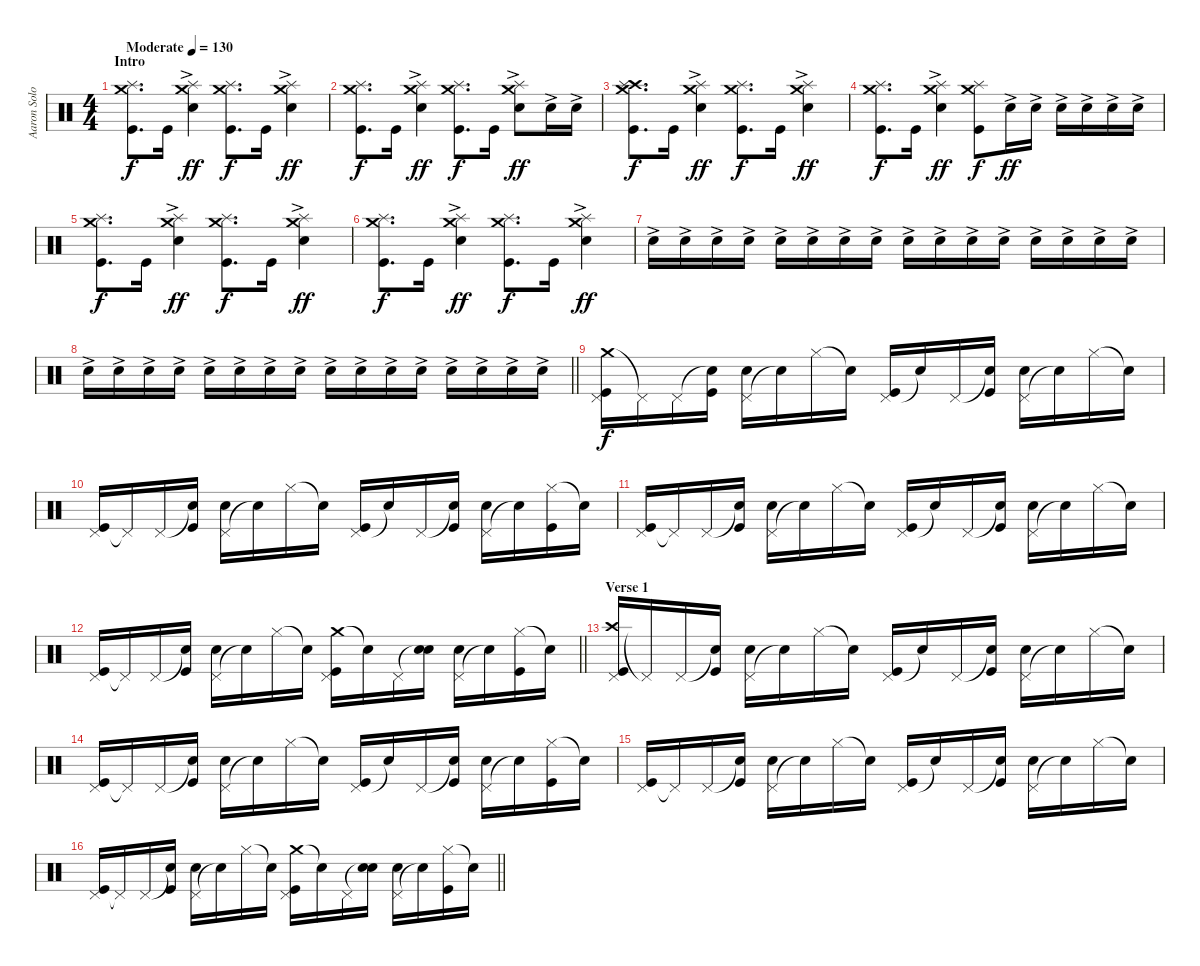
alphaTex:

\track ("Aaron Solowoniuk" "Aaron Solo") {instrument percussion}
\staff {score}
\articulation defaults
\ts (4 4)
\section ("" "Intro")
\tempo (130 "Moderate")
\clef neutral
\ks c
("Crash medium (hit)" "Splash (hit)" "Kick (hit)").8{d dy f} "Kick (hit)".16 ("Crash medium (hit)" "Splash (hit)" "Electric Snare (hit)"{ac}).4{dy ff} ("Crash medium (hit)" "Splash (hit)" "Kick (hit)").8{d dy f} "Kick (hit)".16 ("Crash medium (hit)" "Splash (hit)" "Electric Snare (hit)"{ac}).4{dy ff} |
("Crash medium (hit)" "Splash (hit)" "Kick (hit)").8{d dy f} "Kick (hit)".16 ("Crash medium (hit)" "Splash (hit)" "Electric Snare (hit)"{ac}).4{dy ff} ("Crash medium (hit)" "Splash (hit)" "Kick (hit)").8{d dy f} "Kick (hit)".16 ("Crash medium (hit)" "Splash (hit)" "Electric Snare (hit)"{ac}).8{dy ff} "Electric Snare (hit)"{ac}.16 "Electric Snare (hit)"{ac}.16 |
("Crash high (hit)" "Crash medium (hit)" "Splash (hit)" "Kick (hit)").8{d dy f} "Kick (hit)".16 ("Crash medium (hit)" "Splash (hit)" "Electric Snare (hit)"{ac}).4{dy ff} ("Crash medium (hit)" "Splash (hit)" "Kick (hit)").8{d dy f} "Kick (hit)".16 ("Crash medium (hit)" "Splash (hit)" "Electric Snare (hit)"{ac}).4{dy ff} |
("Crash medium (hit)" "Splash (hit)" "Kick (hit)").8{d dy f} "Kick (hit)".16 ("Crash medium (hit)" "Splash (hit)" "Electric Snare (hit)"{ac}).4{dy ff} ("Crash medium (hit)" "Splash (hit)" "Kick (hit)").8{dy f} "Electric Snare (hit)"{ac}.16{dy ff} "Electric Snare (hit)"{ac}.16 "Electric Snare (hit)"{ac}.16 "Electric Snare (hit)"{ac}.16 "Electric Snare (hit)"{ac}.16 "Electric Snare (hit)"{ac}.16 |
("Crash medium (hit)" "Splash (hit)" "Kick (hit)").8{d dy f} "Kick (hit)".16 ("Crash medium (hit)" "Splash (hit)" "Electric Snare (hit)"{ac}).4{dy ff} ("Crash medium (hit)" "Splash (hit)" "Kick (hit)").8{d dy f} "Kick (hit)".16 ("Crash medium (hit)" "Splash (hit)" "Electric Snare (hit)"{ac}).4{dy ff} |
("Crash medium (hit)" "Splash (hit)" "Kick (hit)").8{d dy f} "Kick (hit)".16 ("Crash medium (hit)" "Splash (hit)" "Electric Snare (hit)"{ac}).4{dy ff} ("Crash medium (hit)" "Splash (hit)" "Kick (hit)").8{d dy f} "Kick (hit)".16 ("Crash medium (hit)" "Splash (hit)" "Electric Snare (hit)"{ac}).4{dy ff} |
"Electric Snare (hit)"{ac}.16 "Electric Snare (hit)"{ac}.16 "Electric Snare (hit)"{ac}.16 "Electric Snare (hit)"{ac}.16 "Electric Snare (hit)"{ac}.16 "Electric Snare (hit)"{ac}.16 "Electric Snare (hit)"{ac}.16 "Electric Snare (hit)"{ac}.16 "Electric Snare (hit)"{ac}.16 "Electric Snare (hit)"{ac}.16 "Electric Snare (hit)"{ac}.16 "Electric Snare (hit)"{ac}.16 "Electric Snare (hit)"{ac}.16 "Electric Snare (hit)"{ac}.16 "Electric Snare (hit)"{ac}.16 "Electric Snare (hit)"{ac}.16 |
\barLineRight lightlight "Electric Snare (hit)"{ac}.16 "Electric Snare (hit)"{ac}.16 "Electric Snare (hit)"{ac}.16 "Electric Snare (hit)"{ac}.16 "Electric Snare (hit)"{ac}.16 "Electric Snare (hit)"{ac}.16 "Electric Snare (hit)"{ac}.16 "Electric Snare (hit)"{ac}.16 "Electric Snare (hit)"{ac}.16 "Electric Snare (hit)"{ac}.16 "Electric Snare (hit)"{ac}.16 "Electric Snare (hit)"{ac}.16 "Electric Snare (hit)"{ac}.16 "Electric Snare (hit)"{ac}.16 "Electric Snare (hit)"{ac}.16 "Electric Snare (hit)"{ac}.16
|
\section ("" "")
("Crash medium (hit)" "Pedal Hi-Hat (hit)" "Kick (hit)").16{dy f} "Pedal Hi-Hat (hit)"{t}.16 "Pedal Hi-Hat (hit)".16 ("Snare (hit)"{t} "Kick (hit)").16 ("Pedal Hi-Hat (hit)" "Electric Snare (hit)").16 "Snare (hit)"{t}.16 "Hi-Hat (closed)".16 "Snare (hit)"{t}.16 ("Pedal Hi-Hat (hit)" "Kick (hit)").16 "Snare (hit)"{t}.16 "Pedal Hi-Hat (hit)".16 ("Snare (hit)"{t} "Kick (hit)").16 ("Pedal Hi-Hat (hit)" "Electric Snare (hit)").16 "Snare (hit)"{t}.16 "Hi-Hat (closed)".16 "Snare (hit)"{t}.16 |
("Pedal Hi-Hat (hit)" "Kick (hit)").16 "Pedal Hi-Hat (hit)"{t}.16 "Pedal Hi-Hat (hit)".16 ("Snare (hit)"{t} "Kick (hit)").16 ("Pedal Hi-Hat (hit)" "Electric Snare (hit)").16 "Snare (hit)"{t}.16 "Hi-Hat (closed)".16 "Snare (hit)"{t}.16 ("Pedal Hi-Hat (hit)" "Kick (hit)").16 "Snare (hit)"{t}.16 "Pedal Hi-Hat (hit)".16 ("Snare (hit)"{t} "Kick (hit)").16 ("Pedal Hi-Hat (hit)" "Electric Snare (hit)").16 "Snare (hit)"{t}.16 ("Hi-Hat (closed)" "Kick (hit)").16 "Snare (hit)"{t}.16 |
("Pedal Hi-Hat (hit)" "Kick (hit)").16 "Pedal Hi-Hat (hit)"{t}.16 "Pedal Hi-Hat (hit)".16 ("Snare (hit)"{t} "Kick (hit)").16 ("Pedal Hi-Hat (hit)" "Electric Snare (hit)").16 "Snare (hit)"{t}.16 "Hi-Hat (closed)".16 "Snare (hit)"{t}.16 ("Pedal Hi-Hat (hit)" "Kick (hit)").16 "Snare (hit)"{t}.16 "Pedal Hi-Hat (hit)".16 ("Snare (hit)"{t} "Kick (hit)").16 ("Pedal Hi-Hat (hit)" "Electric Snare (hit)").16 "Snare (hit)"{t}.16 "Hi-Hat (closed)".16 "Snare (hit)"{t}.16 |
\barLineRight lightlight
("Pedal Hi-Hat (hit)" "Kick (hit)").16 "Pedal Hi-Hat (hit)"{t}.16 "Pedal Hi-Hat (hit)".16 ("Snare (hit)"{t} "Kick (hit)").16 ("Pedal Hi-Hat (hit)" "Electric Snare (hit)").16 "Snare (hit)"{t}.16 "Hi-Hat (closed)".16 "Snare (hit)"{t}.16 ("Crash medium (hit)" "Pedal Hi-Hat (hit)" "Kick (hit)").16 "Snare (hit)"{t}.16 "Pedal Hi-Hat (hit)".16 ("Snare (hit)"{t} "Electric Snare (hit)").16 ("Pedal Hi-Hat (hit)" "Electric Snare (hit)").16 "Snare (hit)"{t}.16 ("Hi-Hat (closed)" "Kick (hit)").16 "Snare (hit)"{t}.16 |
\section ("" "Verse 1")
("Crash high (hit)" "Pedal Hi-Hat (hit)" "Kick (hit)").16 "Pedal Hi-Hat (hit)"{t}.16 "Pedal Hi-Hat (hit)".16 ("Snare (hit)"{t} "Kick (hit)").16 ("Pedal Hi-Hat (hit)" "Electric Snare (hit)").16 "Snare (hit)"{t}.16 "Hi-Hat (closed)".16 "Snare (hit)"{t}.16 ("Pedal Hi-Hat (hit)" "Kick (hit)").16 "Snare (hit)"{t}.16 "Pedal Hi-Hat (hit)".16 ("Snare (hit)"{t} "Kick (hit)").16 ("Pedal Hi-Hat (hit)" "Electric Snare (hit)").16 "Snare (hit)"{t}.16 "Hi-Hat (closed)".16 "Snare (hit)"{t}.16 |
("Pedal Hi-Hat (hit)" "Kick (hit)").16 "Pedal Hi-Hat (hit)"{t}.16 "Pedal Hi-Hat (hit)".16 ("Snare (hit)"{t} "Kick (hit)").16 ("Pedal Hi-Hat (hit)" "Electric Snare (hit)").16 "Snare (hit)"{t}.16 "Hi-Hat (closed)".16 "Snare (hit)"{t}.16 ("Pedal Hi-Hat (hit)" "Kick (hit)").16 "Snare (hit)"{t}.16 "Pedal Hi-Hat (hit)".16 ("Snare (hit)"{t} "Kick (hit)").16 ("Pedal Hi-Hat (hit)" "Electric Snare (hit)").16 "Snare (hit)"{t}.16 ("Hi-Hat (closed)" "Kick (hit)").16 "Snare (hit)"{t}.16 |
("Pedal Hi-Hat (hit)" "Kick (hit)").16 "Pedal Hi-Hat (hit)"{t}.16 "Pedal Hi-Hat (hit)".16 ("Snare (hit)"{t} "Kick (hit)").16 ("Pedal Hi-Hat (hit)" "Electric Snare (hit)").16 "Snare (hit)"{t}.16 "Hi-Hat (closed)".16 "Snare (hit)"{t}.16 ("Pedal Hi-Hat (hit)" "Kick (hit)").16 "Snare (hit)"{t}.16 "Pedal Hi-Hat (hit)".16 ("Snare (hit)"{t} "Kick (hit)").16 ("Pedal Hi-Hat (hit)" "Electric Snare (hit)").16 "Snare (hit)"{t}.16 "Hi-Hat (closed)".16 "Snare (hit)"{t}.16 |
\barLineRight lightlight
("Pedal Hi-Hat (hit)" "Kick (hit)").16 "Pedal Hi-Hat (hit)"{t}.16 "Pedal Hi-Hat (hit)".16 ("Snare (hit)"{t} "Kick (hit)").16 ("Pedal Hi-Hat (hit)" "Electric Snare (hit)").16 "Snare (hit)"{t}.16 "Hi-Hat (closed)".16 "Snare (hit)"{t}.16 ("Crash medium (hit)" "Pedal Hi-Hat (hit)" "Kick (hit)").16 "Snare (hit)"{t}.16 "Pedal Hi-Hat (hit)".16 ("Snare (hit)"{t} "Electric Snare (hit)").16 ("Pedal Hi-Hat (hit)" "Electric Snare (hit)").16 "Snare (hit)"{t}.16 ("Hi-Hat (closed)" "Kick (hit)").16 "Snare (hit)"{t}.16
